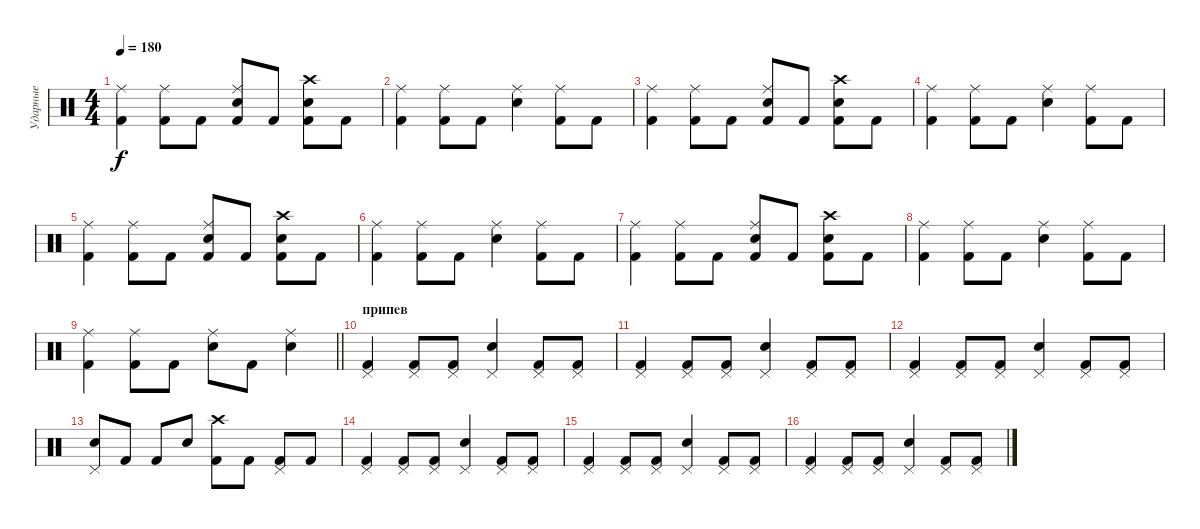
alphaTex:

\track ("Ударные" "Ударные") {instrument percussion}
\staff {score}
\articulation defaults
\ts (4 4)
\tempo 180
\clef neutral
\ks c
("Kick (hit) 2" "Ride (middle)").4{dy f} ("Kick (hit) 2" "Ride (middle)").8 "Kick (hit) 2".8 ("Kick (hit) 2" "Snare (hit) 2" "Ride (middle)").8 "Kick (hit) 2".8 ("Kick (hit) 2" "Snare (hit) 2" "Crash high (hit)").8 "Kick (hit) 2".8 |
("Kick (hit) 2" "Ride (middle)").4 ("Kick (hit) 2" "Ride (middle)").8 "Kick (hit) 2".8 ("Snare (hit) 2" "Ride (middle)").4 ("Kick (hit) 2" "Ride (middle)").8 "Kick (hit) 2".8 |
("Kick (hit) 2" "Ride (middle)").4 ("Kick (hit) 2" "Ride (middle)").8 "Kick (hit) 2".8 ("Kick (hit) 2" "Snare (hit) 2" "Ride (middle)").8 "Kick (hit) 2".8 ("Kick (hit) 2" "Snare (hit) 2" "Crash high (hit)").8 "Kick (hit) 2".8 |
("Kick (hit) 2" "Ride (middle)").4 ("Kick (hit) 2" "Ride (middle)").8 "Kick (hit) 2".8 ("Snare (hit) 2" "Ride (middle)").4 ("Kick (hit) 2" "Ride (middle)").8 "Kick (hit) 2".8 |
("Kick (hit) 2" "Ride (middle)").4 ("Kick (hit) 2" "Ride (middle)").8 "Kick (hit) 2".8 ("Kick (hit) 2" "Snare (hit) 2" "Ride (middle)").8 "Kick (hit) 2".8 ("Kick (hit) 2" "Snare (hit) 2" "Crash high (hit)").8 "Kick (hit) 2".8 |
("Kick (hit) 2" "Ride (middle)").4 ("Kick (hit) 2" "Ride (middle)").8 "Kick (hit) 2".8 ("Snare (hit) 2" "Ride (middle)").4 ("Kick (hit) 2" "Ride (middle)").8 "Kick (hit) 2".8 |
("Kick (hit) 2" "Ride (middle)").4 ("Kick (hit) 2" "Ride (middle)").8 "Kick (hit) 2".8 ("Kick (hit) 2" "Snare (hit) 2" "Ride (middle)").8 "Kick (hit) 2".8 ("Kick (hit) 2" "Snare (hit) 2" "Crash high (hit)").8 "Kick (hit) 2".8 |
("Kick (hit) 2" "Ride (middle)").4 ("Kick (hit) 2" "Ride (middle)").8 "Kick (hit) 2".8 ("Snare (hit) 2" "Ride (middle)").4 ("Kick (hit) 2" "Ride (middle)").8 "Kick (hit) 2".8 |
\barLineRight lightlight
("Kick (hit) 2" "Ride (middle)").4 ("Kick (hit) 2" "Ride (middle)").8 "Kick (hit) 2".8 ("Snare (hit) 2" "Ride (middle)").8 "Kick (hit) 2".8 ("Snare (hit) 2" "Ride (middle)").4 |
\section ("" "припев")
("Kick (hit) 2" "Pedal Hi-Hat (hit)").4 ("Kick (hit) 2" "Pedal Hi-Hat (hit)").8 ("Kick (hit) 2" "Pedal Hi-Hat (hit)").8 ("Snare (hit) 2" "Pedal Hi-Hat (hit)").4 ("Kick (hit) 2" "Pedal Hi-Hat (hit)").8 ("Kick (hit) 2" "Pedal Hi-Hat (hit)").8 |
("Kick (hit) 2" "Pedal Hi-Hat (hit)").4 ("Kick (hit) 2" "Pedal Hi-Hat (hit)").8 ("Kick (hit) 2" "Pedal Hi-Hat (hit)").8 ("Snare (hit) 2" "Pedal Hi-Hat (hit)").4 ("Kick (hit) 2" "Pedal Hi-Hat (hit)").8 ("Kick (hit) 2" "Pedal Hi-Hat (hit)").8 |
("Kick (hit) 2" "Pedal Hi-Hat (hit)").4 ("Kick (hit) 2" "Pedal Hi-Hat (hit)").8 ("Kick (hit) 2" "Pedal Hi-Hat (hit)").8 ("Snare (hit) 2" "Pedal Hi-Hat (hit)").4 ("Kick (hit) 2" "Pedal Hi-Hat (hit)").8 ("Kick (hit) 2" "Pedal Hi-Hat (hit)").8 |
("Snare (hit) 2" "Pedal Hi-Hat (hit)").8 "Kick (hit) 2".8 "Kick (hit) 2".8 "Snare (hit) 2".8 ("Kick (hit) 2" "Crash high (hit)").8 "Kick (hit) 2".8 ("Kick (hit) 2" "Pedal Hi-Hat (hit)").8 "Kick (hit) 2".8 |
("Kick (hit) 2" "Pedal Hi-Hat (hit)").4 ("Kick (hit) 2" "Pedal Hi-Hat (hit)").8 ("Kick (hit) 2" "Pedal Hi-Hat (hit)").8 ("Snare (hit) 2" "Pedal Hi-Hat (hit)").4 ("Kick (hit) 2" "Pedal Hi-Hat (hit)").8 ("Kick (hit) 2" "Pedal Hi-Hat (hit)").8 |
("Kick (hit) 2" "Pedal Hi-Hat (hit)").4 ("Kick (hit) 2" "Pedal Hi-Hat (hit)").8 ("Kick (hit) 2" "Pedal Hi-Hat (hit)").8 ("Snare (hit) 2" "Pedal Hi-Hat (hit)").4 ("Kick (hit) 2" "Pedal Hi-Hat (hit)").8 ("Kick (hit) 2" "Pedal Hi-Hat (hit)").8 |
("Kick (hit) 2" "Pedal Hi-Hat (hit)").4 ("Kick (hit) 2" "Pedal Hi-Hat (hit)").8 ("Kick (hit) 2" "Pedal Hi-Hat (hit)").8 ("Snare (hit) 2" "Pedal Hi-Hat (hit)").4 ("Kick (hit) 2" "Pedal Hi-Hat (hit)").8 ("Kick (hit) 2" "Pedal Hi-Hat (hit)").8
